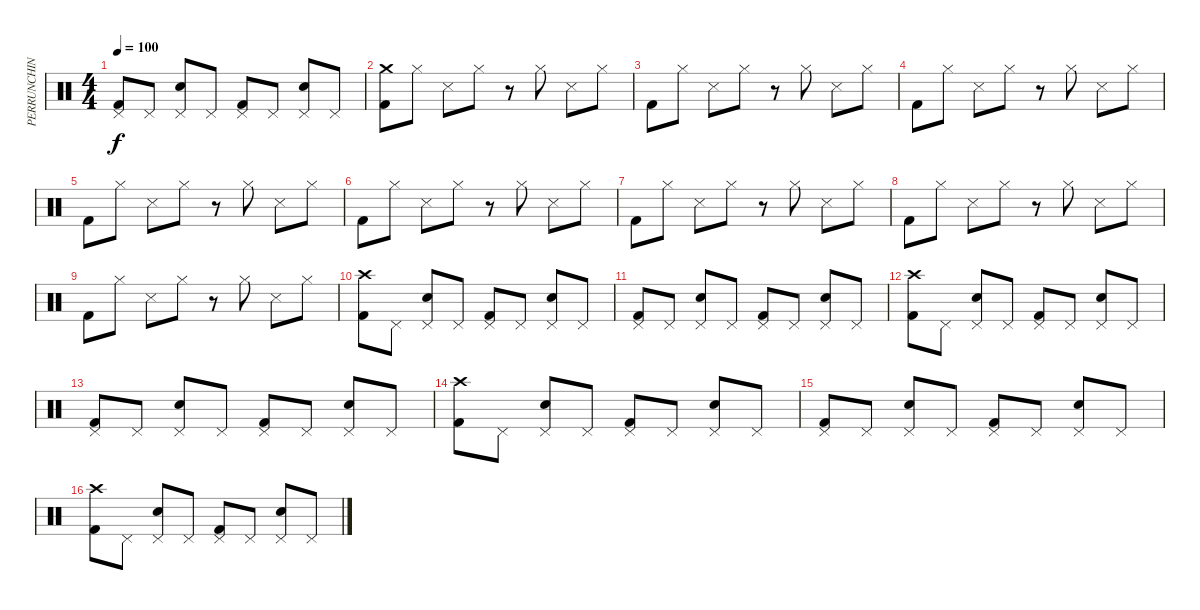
\track ("PERRUNCHIN" "PERRUNCHIN") {instrument percussion}
\staff {score}
\articulation defaults
\ts (4 4)
\tempo 100
\clef neutral
\ks c
("Pedal Hi-Hat (hit)" "Kick (hit) 2").8{dy f} "Pedal Hi-Hat (hit)".8 ("Pedal Hi-Hat (hit)" "Electric Snare (hit)").8 "Pedal Hi-Hat (hit)".8 ("Pedal Hi-Hat (hit)" "Kick (hit) 2").8 "Pedal Hi-Hat (hit)".8 ("Pedal Hi-Hat (hit)" "Electric Snare (hit)").8 "Pedal Hi-Hat (hit)".8 |
("Crash medium (hit)" "Kick (hit) 2").8 "Hi-Hat (closed)".8 "Snare (side stick) 3".8 "Hi-Hat (closed)".8 r.8 "Hi-Hat (closed)".8 "Snare (side stick) 3".8 "Hi-Hat (closed)".8 |
"Kick (hit) 2".8 "Hi-Hat (closed)".8 "Snare (side stick) 3".8 "Hi-Hat (closed)".8 r.8 "Hi-Hat (closed)".8 "Snare (side stick) 3".8 "Hi-Hat (closed)".8 |
"Kick (hit) 2".8 "Hi-Hat (closed)".8 "Snare (side stick) 3".8 "Hi-Hat (closed)".8 r.8 "Hi-Hat (closed)".8 "Snare (side stick) 3".8 "Hi-Hat (closed)".8 |
"Kick (hit) 2".8 "Hi-Hat (closed)".8 "Snare (side stick) 3".8 "Hi-Hat (closed)".8 r.8 "Hi-Hat (closed)".8 "Snare (side stick) 3".8 "Hi-Hat (closed)".8 |
"Kick (hit) 2".8 "Hi-Hat (closed)".8 "Snare (side stick) 3".8 "Hi-Hat (closed)".8 r.8 "Hi-Hat (closed)".8 "Snare (side stick) 3".8 "Hi-Hat (closed)".8 |
"Kick (hit) 2".8 "Hi-Hat (closed)".8 "Snare (side stick) 3".8 "Hi-Hat (closed)".8 r.8 "Hi-Hat (closed)".8 "Snare (side stick) 3".8 "Hi-Hat (closed)".8 |
"Kick (hit) 2".8 "Hi-Hat (closed)".8 "Snare (side stick) 3".8 "Hi-Hat (closed)".8 r.8 "Hi-Hat (closed)".8 "Snare (side stick) 3".8 "Hi-Hat (closed)".8 |
"Kick (hit) 2".8 "Hi-Hat (closed)".8 "Snare (side stick) 3".8 "Hi-Hat (closed)".8 r.8 "Hi-Hat (closed)".8 "Snare (side stick) 3".8 "Hi-Hat (closed)".8 |
("Crash high (hit)" "Kick (hit) 2").8 "Pedal Hi-Hat (hit)".8 ("Pedal Hi-Hat (hit)" "Electric Snare (hit)").8 "Pedal Hi-Hat (hit)".8 ("Pedal Hi-Hat (hit)" "Kick (hit) 2").8 "Pedal Hi-Hat (hit)".8 ("Pedal Hi-Hat (hit)" "Electric Snare (hit)").8 "Pedal Hi-Hat (hit)".8 |
("Pedal Hi-Hat (hit)" "Kick (hit) 2").8 "Pedal Hi-Hat (hit)".8 ("Pedal Hi-Hat (hit)" "Electric Snare (hit)").8 "Pedal Hi-Hat (hit)".8 ("Pedal Hi-Hat (hit)" "Kick (hit) 2").8 "Pedal Hi-Hat (hit)".8 ("Pedal Hi-Hat (hit)" "Electric Snare (hit)").8 "Pedal Hi-Hat (hit)".8 |
("Crash high (hit)" "Kick (hit) 2").8 "Pedal Hi-Hat (hit)".8 ("Pedal Hi-Hat (hit)" "Electric Snare (hit)").8 "Pedal Hi-Hat (hit)".8 ("Pedal Hi-Hat (hit)" "Kick (hit) 2").8 "Pedal Hi-Hat (hit)".8 ("Pedal Hi-Hat (hit)" "Electric Snare (hit)").8 "Pedal Hi-Hat (hit)".8 |
("Pedal Hi-Hat (hit)" "Kick (hit) 2").8 "Pedal Hi-Hat (hit)".8 ("Pedal Hi-Hat (hit)" "Electric Snare (hit)").8 "Pedal Hi-Hat (hit)".8 ("Pedal Hi-Hat (hit)" "Kick (hit) 2").8 "Pedal Hi-Hat (hit)".8 ("Pedal Hi-Hat (hit)" "Electric Snare (hit)").8 "Pedal Hi-Hat (hit)".8 |
("Crash high (hit)" "Kick (hit) 2").8 "Pedal Hi-Hat (hit)".8 ("Pedal Hi-Hat (hit)" "Electric Snare (hit)").8 "Pedal Hi-Hat (hit)".8 ("Pedal Hi-Hat (hit)" "Kick (hit) 2").8 "Pedal Hi-Hat (hit)".8 ("Pedal Hi-Hat (hit)" "Electric Snare (hit)").8 "Pedal Hi-Hat (hit)".8 |
("Pedal Hi-Hat (hit)" "Kick (hit) 2").8 "Pedal Hi-Hat (hit)".8 ("Pedal Hi-Hat (hit)" "Electric Snare (hit)").8 "Pedal Hi-Hat (hit)".8 ("Pedal Hi-Hat (hit)" "Kick (hit) 2").8 "Pedal Hi-Hat (hit)".8 ("Pedal Hi-Hat (hit)" "Electric Snare (hit)").8 "Pedal Hi-Hat (hit)".8 |
("Crash high (hit)" "Kick (hit) 2").8 "Pedal Hi-Hat (hit)".8 ("Pedal Hi-Hat (hit)" "Electric Snare (hit)").8 "Pedal Hi-Hat (hit)".8 ("Pedal Hi-Hat (hit)" "Kick (hit) 2").8 "Pedal Hi-Hat (hit)".8 ("Pedal Hi-Hat (hit)" "Electric Snare (hit)").8 "Pedal Hi-Hat (hit)".8
